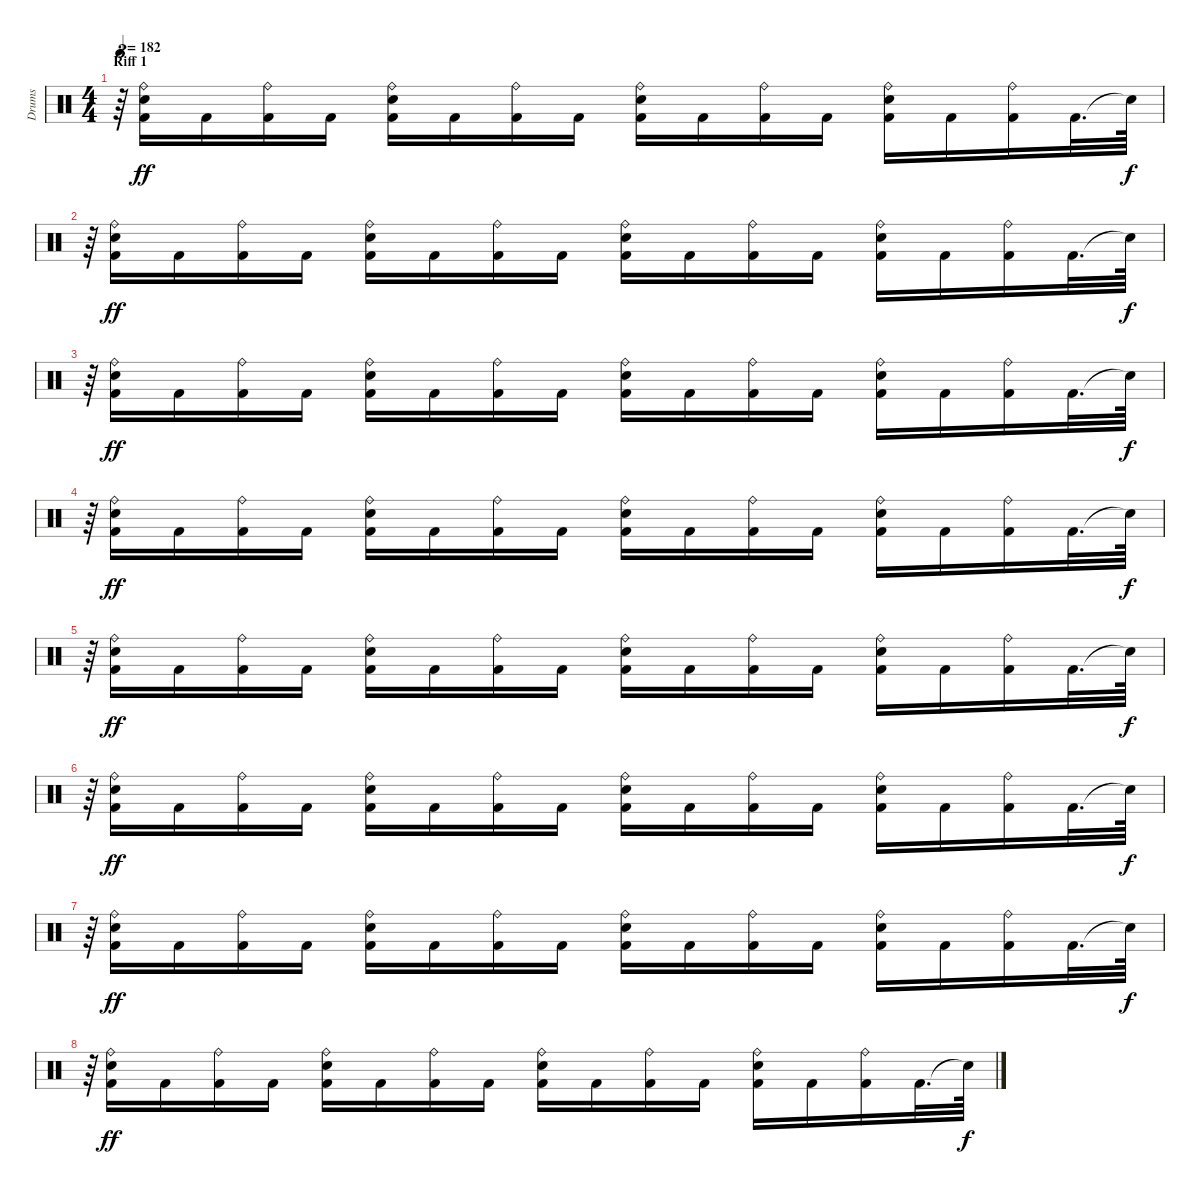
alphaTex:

\track ("Drums" "Drums") {instrument percussion}
\staff {score}
\articulation defaults
\ts (4 4)
\section ("" "Riff 1")
\tempo 182
\clef neutral
\ks c
r.64{tu (3 2) dy ff} ("Kick (hit) 2" "Snare (hit) 2" "Ride (bell)").16 "Kick (hit) 2".16 ("Kick (hit) 2" "Ride (bell)").16 "Kick (hit) 2".16 ("Kick (hit) 2" "Snare (hit) 2" "Ride (bell)").16 "Kick (hit) 2".16 ("Kick (hit) 2" "Ride (bell)").16 "Kick (hit) 2".16 ("Kick (hit) 2" "Snare (hit) 2" "Ride (bell)").16 "Kick (hit) 2".16 ("Kick (hit) 2" "Ride (bell)").16 "Kick (hit) 2".16 ("Kick (hit) 2" "Snare (hit) 2" "Ride (bell)").16 "Kick (hit) 2".16 ("Kick (hit) 2" "Ride (bell)").16 "Kick (hit) 2".32{d} "Snare (hit)"{t}.64{dy f} |
r.64{tu (3 2)} ("Kick (hit) 2" "Snare (hit) 2" "Ride (bell)").16{dy ff} "Kick (hit) 2".16 ("Kick (hit) 2" "Ride (bell)").16 "Kick (hit) 2".16 ("Kick (hit) 2" "Snare (hit) 2" "Ride (bell)").16 "Kick (hit) 2".16 ("Kick (hit) 2" "Ride (bell)").16 "Kick (hit) 2".16 ("Kick (hit) 2" "Snare (hit) 2" "Ride (bell)").16 "Kick (hit) 2".16 ("Kick (hit) 2" "Ride (bell)").16 "Kick (hit) 2".16 ("Kick (hit) 2" "Snare (hit) 2" "Ride (bell)").16 "Kick (hit) 2".16 ("Kick (hit) 2" "Ride (bell)").16 "Kick (hit) 2".32{d} "Snare (hit)"{t}.64{dy f} |
r.64{tu (3 2)} ("Kick (hit) 2" "Snare (hit) 2" "Ride (bell)").16{dy ff} "Kick (hit) 2".16 ("Kick (hit) 2" "Ride (bell)").16 "Kick (hit) 2".16 ("Kick (hit) 2" "Snare (hit) 2" "Ride (bell)").16 "Kick (hit) 2".16 ("Kick (hit) 2" "Ride (bell)").16 "Kick (hit) 2".16 ("Kick (hit) 2" "Snare (hit) 2" "Ride (bell)").16 "Kick (hit) 2".16 ("Kick (hit) 2" "Ride (bell)").16 "Kick (hit) 2".16 ("Kick (hit) 2" "Snare (hit) 2" "Ride (bell)").16 "Kick (hit) 2".16 ("Kick (hit) 2" "Ride (bell)").16 "Kick (hit) 2".32{d} "Snare (hit)"{t}.64{dy f} |
r.64{tu (3 2)} ("Kick (hit) 2" "Snare (hit) 2" "Ride (bell)").16{dy ff} "Kick (hit) 2".16 ("Kick (hit) 2" "Ride (bell)").16 "Kick (hit) 2".16 ("Kick (hit) 2" "Snare (hit) 2" "Ride (bell)").16 "Kick (hit) 2".16 ("Kick (hit) 2" "Ride (bell)").16 "Kick (hit) 2".16 ("Kick (hit) 2" "Snare (hit) 2" "Ride (bell)").16 "Kick (hit) 2".16 ("Kick (hit) 2" "Ride (bell)").16 "Kick (hit) 2".16 ("Kick (hit) 2" "Snare (hit) 2" "Ride (bell)").16 "Kick (hit) 2".16 ("Kick (hit) 2" "Ride (bell)").16 "Kick (hit) 2".32{d} "Snare (hit)"{t}.64{dy f} |
r.64{tu (3 2)} ("Kick (hit) 2" "Snare (hit) 2" "Ride (bell)").16{dy ff} "Kick (hit) 2".16 ("Kick (hit) 2" "Ride (bell)").16 "Kick (hit) 2".16 ("Kick (hit) 2" "Snare (hit) 2" "Ride (bell)").16 "Kick (hit) 2".16 ("Kick (hit) 2" "Ride (bell)").16 "Kick (hit) 2".16 ("Kick (hit) 2" "Snare (hit) 2" "Ride (bell)").16 "Kick (hit) 2".16 ("Kick (hit) 2" "Ride (bell)").16 "Kick (hit) 2".16 ("Kick (hit) 2" "Snare (hit) 2" "Ride (bell)").16 "Kick (hit) 2".16 ("Kick (hit) 2" "Ride (bell)").16 "Kick (hit) 2".32{d} "Snare (hit)"{t}.64{dy f} |
r.64{tu (3 2)} ("Kick (hit) 2" "Snare (hit) 2" "Ride (bell)").16{dy ff} "Kick (hit) 2".16 ("Kick (hit) 2" "Ride (bell)").16 "Kick (hit) 2".16 ("Kick (hit) 2" "Snare (hit) 2" "Ride (bell)").16 "Kick (hit) 2".16 ("Kick (hit) 2" "Ride (bell)").16 "Kick (hit) 2".16 ("Kick (hit) 2" "Snare (hit) 2" "Ride (bell)").16 "Kick (hit) 2".16 ("Kick (hit) 2" "Ride (bell)").16 "Kick (hit) 2".16 ("Kick (hit) 2" "Snare (hit) 2" "Ride (bell)").16 "Kick (hit) 2".16 ("Kick (hit) 2" "Ride (bell)").16 "Kick (hit) 2".32{d} "Snare (hit)"{t}.64{dy f} |
r.64{tu (3 2)} ("Kick (hit) 2" "Snare (hit) 2" "Ride (bell)").16{dy ff} "Kick (hit) 2".16 ("Kick (hit) 2" "Ride (bell)").16 "Kick (hit) 2".16 ("Kick (hit) 2" "Snare (hit) 2" "Ride (bell)").16 "Kick (hit) 2".16 ("Kick (hit) 2" "Ride (bell)").16 "Kick (hit) 2".16 ("Kick (hit) 2" "Snare (hit) 2" "Ride (bell)").16 "Kick (hit) 2".16 ("Kick (hit) 2" "Ride (bell)").16 "Kick (hit) 2".16 ("Kick (hit) 2" "Snare (hit) 2" "Ride (bell)").16 "Kick (hit) 2".16 ("Kick (hit) 2" "Ride (bell)").16 "Kick (hit) 2".32{d} "Snare (hit)"{t}.64{dy f} |
r.64{tu (3 2)} ("Kick (hit) 2" "Snare (hit) 2" "Ride (bell)").16{dy ff} "Kick (hit) 2".16 ("Kick (hit) 2" "Ride (bell)").16 "Kick (hit) 2".16 ("Kick (hit) 2" "Snare (hit) 2" "Ride (bell)").16 "Kick (hit) 2".16 ("Kick (hit) 2" "Ride (bell)").16 "Kick (hit) 2".16 ("Kick (hit) 2" "Snare (hit) 2" "Ride (bell)").16 "Kick (hit) 2".16 ("Kick (hit) 2" "Ride (bell)").16 "Kick (hit) 2".16 ("Kick (hit) 2" "Snare (hit) 2" "Ride (bell)").16 "Kick (hit) 2".16 ("Kick (hit) 2" "Ride (bell)").16 "Kick (hit) 2".32{d} "Snare (hit)"{t}.64{dy f}
